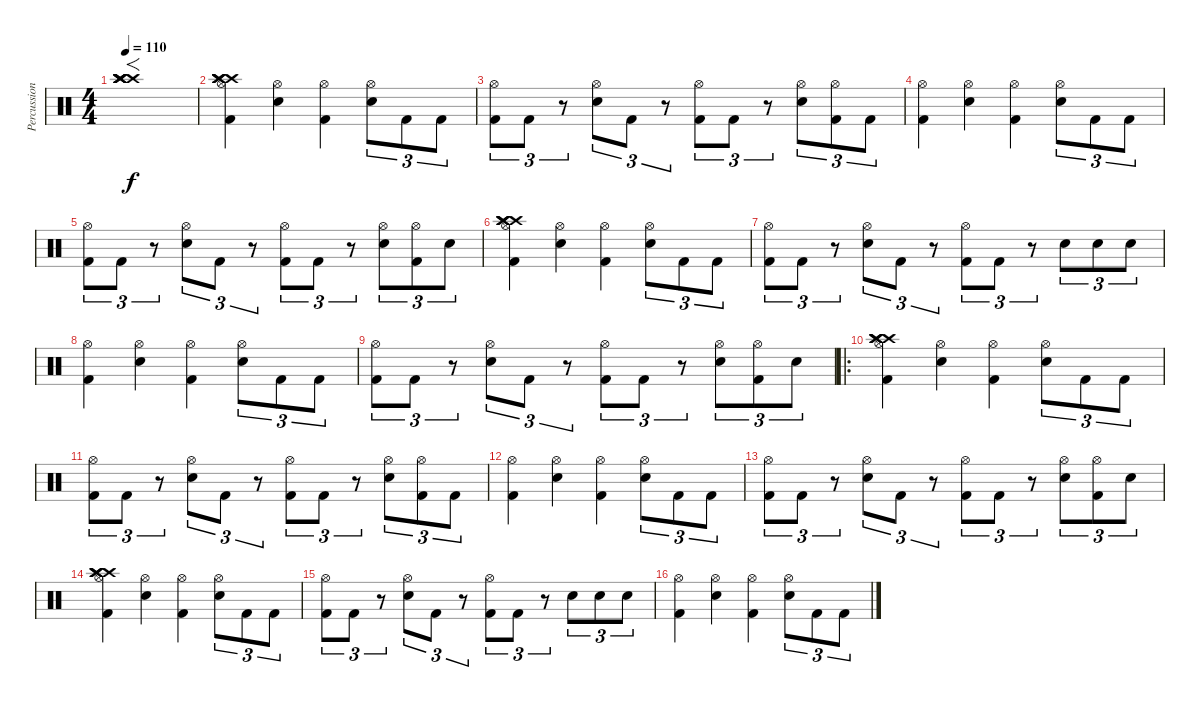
\track ("Percussion" "Percussion") {instrument percussion}
\staff {score}
\articulation defaults
\ts (4 4)
\tempo 110
\clef neutral
\ks c
("Crash high (hit)" "Crash high (hit)" "Crash high (hit)" "Crash high (hit)" "Crash high (hit)" "Crash high (hit)").1{f dy f} |
("Crash high (hit)" "Crash high (hit)" "Crash high (hit)" "Crash high (hit)" "Hi-Hat (open)" "Kick (hit) 2").4 ("Hi-Hat (open)" "Snare (hit) 2").4 ("Hi-Hat (open)" "Kick (hit) 2").4 ("Hi-Hat (open)" "Snare (hit) 2").8{tu (3 2)} "Kick (hit) 2".8{tu (3 2)} "Kick (hit) 2".8{tu (3 2)} |
("Hi-Hat (open)" "Kick (hit) 2").8{tu (3 2)} "Kick (hit) 2".8{tu (3 2)} r.8{tu (3 2)} ("Hi-Hat (open)" "Snare (hit) 2").8{tu (3 2)} "Kick (hit) 2".8{tu (3 2)} r.8{tu (3 2)} ("Hi-Hat (open)" "Kick (hit) 2").8{tu (3 2)} "Kick (hit) 2".8{tu (3 2)} r.8{tu (3 2)} ("Hi-Hat (open)" "Snare (hit) 2").8{tu (3 2)} ("Hi-Hat (open)" "Kick (hit) 2").8{tu (3 2)} "Kick (hit) 2".8{tu (3 2)} |
("Hi-Hat (open)" "Kick (hit) 2").4 ("Hi-Hat (open)" "Snare (hit) 2").4 ("Hi-Hat (open)" "Kick (hit) 2").4 ("Hi-Hat (open)" "Snare (hit) 2").8{tu (3 2)} "Kick (hit) 2".8{tu (3 2)} "Kick (hit) 2".8{tu (3 2)} |
("Hi-Hat (open)" "Kick (hit) 2").8{tu (3 2)} "Kick (hit) 2".8{tu (3 2)} r.8{tu (3 2)} ("Hi-Hat (open)" "Snare (hit) 2").8{tu (3 2)} "Kick (hit) 2".8{tu (3 2)} r.8{tu (3 2)} ("Hi-Hat (open)" "Kick (hit) 2").8{tu (3 2)} "Kick (hit) 2".8{tu (3 2)} r.8{tu (3 2)} ("Hi-Hat (open)" "Snare (hit) 2").8{tu (3 2)} ("Hi-Hat (open)" "Kick (hit) 2").8{tu (3 2)} "Snare (hit) 2".8{tu (3 2)} |
("Crash high (hit)" "Crash high (hit)" "Crash high (hit)" "Crash high (hit)" "Hi-Hat (open)" "Kick (hit) 2").4 ("Hi-Hat (open)" "Snare (hit) 2").4 ("Hi-Hat (open)" "Kick (hit) 2").4 ("Hi-Hat (open)" "Snare (hit) 2").8{tu (3 2)} "Kick (hit) 2".8{tu (3 2)} "Kick (hit) 2".8{tu (3 2)} |
("Hi-Hat (open)" "Kick (hit) 2").8{tu (3 2)} "Kick (hit) 2".8{tu (3 2)} r.8{tu (3 2)} ("Hi-Hat (open)" "Snare (hit) 2").8{tu (3 2)} "Kick (hit) 2".8{tu (3 2)} r.8{tu (3 2)} ("Hi-Hat (open)" "Kick (hit) 2").8{tu (3 2)} "Kick (hit) 2".8{tu (3 2)} r.8{tu (3 2)} "Snare (hit) 2".8{tu (3 2)} "Snare (hit) 2".8{tu (3 2)} "Snare (hit) 2".8{tu (3 2)} |
("Hi-Hat (open)" "Kick (hit) 2").4 ("Hi-Hat (open)" "Snare (hit) 2").4 ("Hi-Hat (open)" "Kick (hit) 2").4 ("Hi-Hat (open)" "Snare (hit) 2").8{tu (3 2)} "Kick (hit) 2".8{tu (3 2)} "Kick (hit) 2".8{tu (3 2)} |
("Hi-Hat (open)" "Kick (hit) 2").8{tu (3 2)} "Kick (hit) 2".8{tu (3 2)} r.8{tu (3 2)} ("Hi-Hat (open)" "Snare (hit) 2").8{tu (3 2)} "Kick (hit) 2".8{tu (3 2)} r.8{tu (3 2)} ("Hi-Hat (open)" "Kick (hit) 2").8{tu (3 2)} "Kick (hit) 2".8{tu (3 2)} r.8{tu (3 2)} ("Hi-Hat (open)" "Snare (hit) 2").8{tu (3 2)} ("Hi-Hat (open)" "Kick (hit) 2").8{tu (3 2)} "Snare (hit) 2".8{tu (3 2)} |
\ro
("Crash high (hit)" "Crash high (hit)" "Crash high (hit)" "Crash high (hit)" "Hi-Hat (open)" "Kick (hit) 2").4 ("Hi-Hat (open)" "Snare (hit) 2").4 ("Hi-Hat (open)" "Kick (hit) 2").4 ("Hi-Hat (open)" "Snare (hit) 2").8{tu (3 2)} "Kick (hit) 2".8{tu (3 2)} "Kick (hit) 2".8{tu (3 2)} |
("Hi-Hat (open)" "Kick (hit) 2").8{tu (3 2)} "Kick (hit) 2".8{tu (3 2)} r.8{tu (3 2)} ("Hi-Hat (open)" "Snare (hit) 2").8{tu (3 2)} "Kick (hit) 2".8{tu (3 2)} r.8{tu (3 2)} ("Hi-Hat (open)" "Kick (hit) 2").8{tu (3 2)} "Kick (hit) 2".8{tu (3 2)} r.8{tu (3 2)} ("Hi-Hat (open)" "Snare (hit) 2").8{tu (3 2)} ("Hi-Hat (open)" "Kick (hit) 2").8{tu (3 2)} "Kick (hit) 2".8{tu (3 2)} |
("Hi-Hat (open)" "Kick (hit) 2").4 ("Hi-Hat (open)" "Snare (hit) 2").4 ("Hi-Hat (open)" "Kick (hit) 2").4 ("Hi-Hat (open)" "Snare (hit) 2").8{tu (3 2)} "Kick (hit) 2".8{tu (3 2)} "Kick (hit) 2".8{tu (3 2)} |
("Hi-Hat (open)" "Kick (hit) 2").8{tu (3 2)} "Kick (hit) 2".8{tu (3 2)} r.8{tu (3 2)} ("Hi-Hat (open)" "Snare (hit) 2").8{tu (3 2)} "Kick (hit) 2".8{tu (3 2)} r.8{tu (3 2)} ("Hi-Hat (open)" "Kick (hit) 2").8{tu (3 2)} "Kick (hit) 2".8{tu (3 2)} r.8{tu (3 2)} ("Hi-Hat (open)" "Snare (hit) 2").8{tu (3 2)} ("Hi-Hat (open)" "Kick (hit) 2").8{tu (3 2)} "Snare (hit) 2".8{tu (3 2)} |
("Crash high (hit)" "Crash high (hit)" "Crash high (hit)" "Crash high (hit)" "Hi-Hat (open)" "Kick (hit) 2").4 ("Hi-Hat (open)" "Snare (hit) 2").4 ("Hi-Hat (open)" "Kick (hit) 2").4 ("Hi-Hat (open)" "Snare (hit) 2").8{tu (3 2)} "Kick (hit) 2".8{tu (3 2)} "Kick (hit) 2".8{tu (3 2)} |
("Hi-Hat (open)" "Kick (hit) 2").8{tu (3 2)} "Kick (hit) 2".8{tu (3 2)} r.8{tu (3 2)} ("Hi-Hat (open)" "Snare (hit) 2").8{tu (3 2)} "Kick (hit) 2".8{tu (3 2)} r.8{tu (3 2)} ("Hi-Hat (open)" "Kick (hit) 2").8{tu (3 2)} "Kick (hit) 2".8{tu (3 2)} r.8{tu (3 2)} "Snare (hit) 2".8{tu (3 2)} "Snare (hit) 2".8{tu (3 2)} "Snare (hit) 2".8{tu (3 2)} |
("Hi-Hat (open)" "Kick (hit) 2").4 ("Hi-Hat (open)" "Snare (hit) 2").4 ("Hi-Hat (open)" "Kick (hit) 2").4 ("Hi-Hat (open)" "Snare (hit) 2").8{tu (3 2)} "Kick (hit) 2".8{tu (3 2)} "Kick (hit) 2".8{tu (3 2)}
